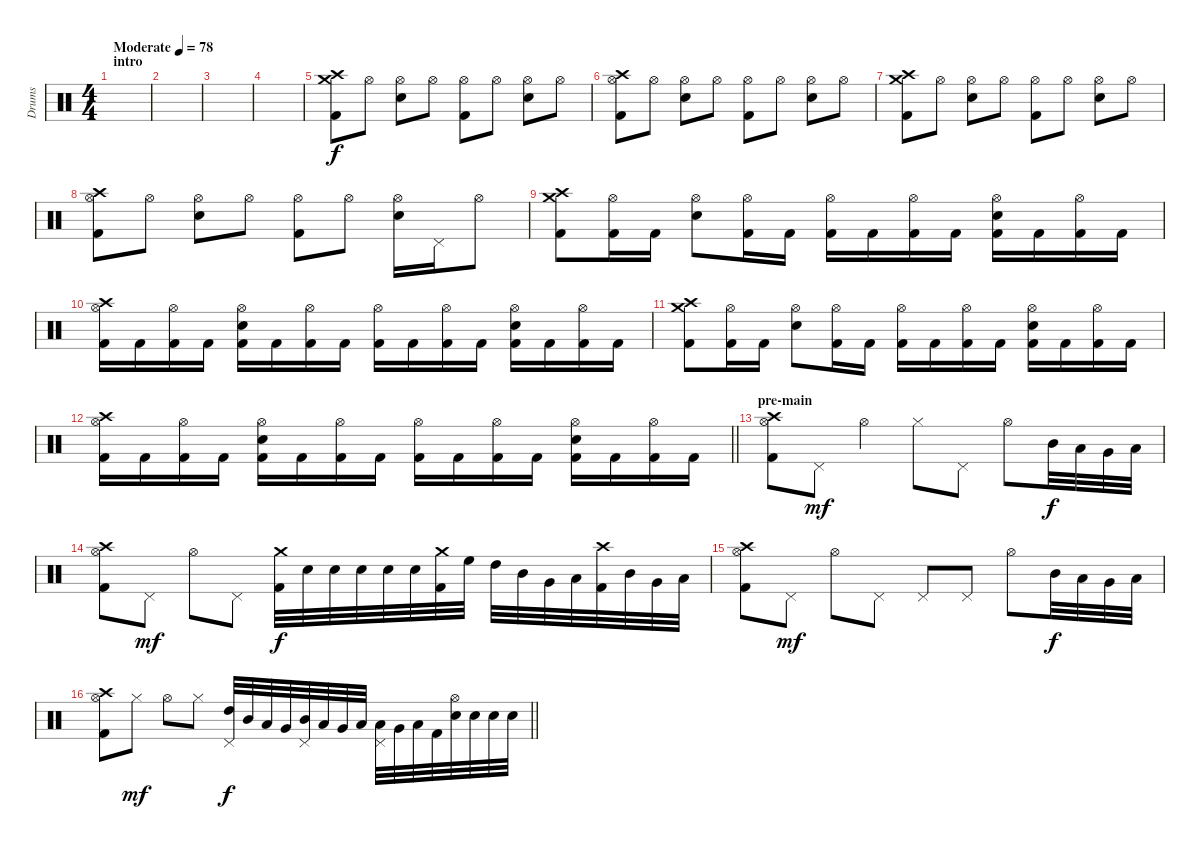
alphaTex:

\track ("Drums" "Drums") {instrument percussion}
\staff {score}
\articulation defaults
\ts (4 4)
\section ("" "intro")
\tempo (78 "Moderate")
\clef neutral
\ks c
|
|
|
|
("Crash high (hit)" "Kick (hit) 2" "Crash medium (hit)").8 "Hi-Hat (open)".8 ("Electric Snare (hit)" "Hi-Hat (open)").8 "Hi-Hat (open)".8 ("Kick (hit) 2" "Hi-Hat (open)").8 "Hi-Hat (open)".8 ("Electric Snare (hit)" "Hi-Hat (open)").8 "Hi-Hat (open)".8 |
("Crash high (hit)" "Kick (hit) 2" "Hi-Hat (open)").8 "Hi-Hat (open)".8 ("Electric Snare (hit)" "Hi-Hat (open)").8 "Hi-Hat (open)".8 ("Kick (hit) 2" "Hi-Hat (open)").8 "Hi-Hat (open)".8 ("Electric Snare (hit)" "Hi-Hat (open)").8 "Hi-Hat (open)".8 |
("Crash high (hit)" "Kick (hit) 2" "Crash medium (hit)").8 "Hi-Hat (open)".8 ("Electric Snare (hit)" "Hi-Hat (open)").8 "Hi-Hat (open)".8 ("Kick (hit) 2" "Hi-Hat (open)").8 "Hi-Hat (open)".8 ("Electric Snare (hit)" "Hi-Hat (open)").8 "Hi-Hat (open)".8 |
("Crash high (hit)" "Kick (hit) 2" "Hi-Hat (open)").8 "Hi-Hat (open)".8 ("Electric Snare (hit)" "Hi-Hat (open)").8 "Hi-Hat (open)".8 ("Kick (hit) 2" "Hi-Hat (open)").8 "Hi-Hat (open)".8 ("Electric Snare (hit)" "Hi-Hat (open)").16 "Pedal Hi-Hat (hit)".16 "Hi-Hat (open)".8 |
("Crash high (hit)" "Kick (hit) 2" "Crash medium (hit)").8 ("Kick (hit) 2" "Hi-Hat (open)").16 "Kick (hit) 2".16 ("Electric Snare (hit)" "Hi-Hat (open)").8 ("Kick (hit) 2" "Hi-Hat (open)").16 "Kick (hit) 2".16 ("Kick (hit) 2" "Hi-Hat (open)").16 "Kick (hit) 2".16 ("Kick (hit) 2" "Hi-Hat (open)").16 "Kick (hit) 2".16 ("Kick (hit) 2" "Electric Snare (hit)" "Hi-Hat (open)").16 "Kick (hit) 2".16 ("Kick (hit) 2" "Hi-Hat (open)").16 "Kick (hit) 2".16 |
("Crash high (hit)" "Kick (hit) 2" "Hi-Hat (open)").16 "Kick (hit) 2".16 ("Kick (hit) 2" "Hi-Hat (open)").16 "Kick (hit) 2".16 ("Kick (hit) 2" "Electric Snare (hit)" "Hi-Hat (open)").16 "Kick (hit) 2".16 ("Kick (hit) 2" "Hi-Hat (open)").16 "Kick (hit) 2".16 ("Kick (hit) 2" "Hi-Hat (open)").16 "Kick (hit) 2".16 ("Kick (hit) 2" "Hi-Hat (open)").16 "Kick (hit) 2".16 ("Kick (hit) 2" "Electric Snare (hit)" "Hi-Hat (open)").16 "Kick (hit) 2".16 ("Kick (hit) 2" "Hi-Hat (open)").16 "Kick (hit) 2".16 |
("Crash high (hit)" "Kick (hit) 2" "Crash medium (hit)").8 ("Kick (hit) 2" "Hi-Hat (open)").16 "Kick (hit) 2".16 ("Electric Snare (hit)" "Hi-Hat (open)").8 ("Kick (hit) 2" "Hi-Hat (open)").16 "Kick (hit) 2".16 ("Kick (hit) 2" "Hi-Hat (open)").16 "Kick (hit) 2".16 ("Kick (hit) 2" "Hi-Hat (open)").16 "Kick (hit) 2".16 ("Kick (hit) 2" "Electric Snare (hit)" "Hi-Hat (open)").16 "Kick (hit) 2".16 ("Kick (hit) 2" "Hi-Hat (open)").16 "Kick (hit) 2".16 |
\barLineRight lightlight
("Crash high (hit)" "Kick (hit) 2" "Hi-Hat (open)").16 "Kick (hit) 2".16 ("Kick (hit) 2" "Hi-Hat (open)").16 "Kick (hit) 2".16 ("Kick (hit) 2" "Electric Snare (hit)" "Hi-Hat (open)").16 "Kick (hit) 2".16 ("Kick (hit) 2" "Hi-Hat (open)").16 "Kick (hit) 2".16 ("Kick (hit) 2" "Hi-Hat (open)").16 "Kick (hit) 2".16 ("Kick (hit) 2" "Hi-Hat (open)").16 "Kick (hit) 2".16 ("Kick (hit) 2" "Electric Snare (hit)" "Hi-Hat (open)").16 "Kick (hit) 2".16 ("Kick (hit) 2" "Hi-Hat (open)").16 "Kick (hit) 2".16 |
\section ("" "pre-main")
("Crash high (hit)" "Hi-Hat (open)" "Kick (hit) 2").8 "Pedal Hi-Hat (hit)".8{dy mf} "Hi-Hat (open)".4 "Hi-Hat (closed)".8 "Pedal Hi-Hat (hit)".8 "Hi-Hat (open)".8 "Mid Tom (hit)".32{dy f} "Low Tom (hit)".32 "Very Low Tom (hit)".32 "Low Floor Tom (hit)".32 |
("Crash high (hit)" "Hi-Hat (open)" "Kick (hit) 2").8 "Pedal Hi-Hat (hit)".8{dy mf} "Hi-Hat (open)".8 "Pedal Hi-Hat (hit)".8 ("Kick (hit) 2" "Crash medium (hit)").32{dy f} "Electric Snare (hit)".32 "Electric Snare (hit)".32 "Electric Snare (hit)".32 "Electric Snare (hit)".32 "Electric Snare (hit)".32 ("Kick (hit) 2" "Crash medium (hit)").32 "High Floor Tom (hit)".32 "High Tom (hit)".32 "Mid Tom (hit)".32 "Very Low Tom (hit)".32 "Low Floor Tom (hit)".32 ("Kick (hit) 2" "Crash high (hit)").32 "Mid Tom (hit)".32 "Very Low Tom (hit)".32 "Low Floor Tom (hit)".32 |
("Crash high (hit)" "Hi-Hat (open)" "Kick (hit) 2").8 "Pedal Hi-Hat (hit)".8{dy mf} "Hi-Hat (open)".8 "Pedal Hi-Hat (hit)".8 "Pedal Hi-Hat (hit)".8 "Pedal Hi-Hat (hit)".8 "Hi-Hat (open)".8 "Mid Tom (hit)".32{dy f} "Low Tom (hit)".32 "Very Low Tom (hit)".32 "Low Floor Tom (hit)".32 |
\barLineRight lightlight
("Crash high (hit)" "Hi-Hat (open)" "Kick (hit) 2").8 "Hi-Hat (closed)".8{dy mf} "Hi-Hat (open)".8 "Hi-Hat (closed)".8 ("High Tom (hit)" "Pedal Hi-Hat (hit)").32{dy f} "Mid Tom (hit)".32 "Low Tom (hit)".32 "Very Low Tom (hit)".32 ("Mid Tom (hit)" "Pedal Hi-Hat (hit)").32 "Low Tom (hit)".32 "Very Low Tom (hit)".32 "Low Floor Tom (hit)".32 ("Low Tom (hit)" "Pedal Hi-Hat (hit)").32 "Very Low Tom (hit)".32 "Low Floor Tom (hit)".32 "Kick (hit) 2".32 ("Electric Snare (hit)" "Hi-Hat (open)").32 "Electric Snare (hit)".32 "Electric Snare (hit)".32 "Electric Snare (hit)".32
